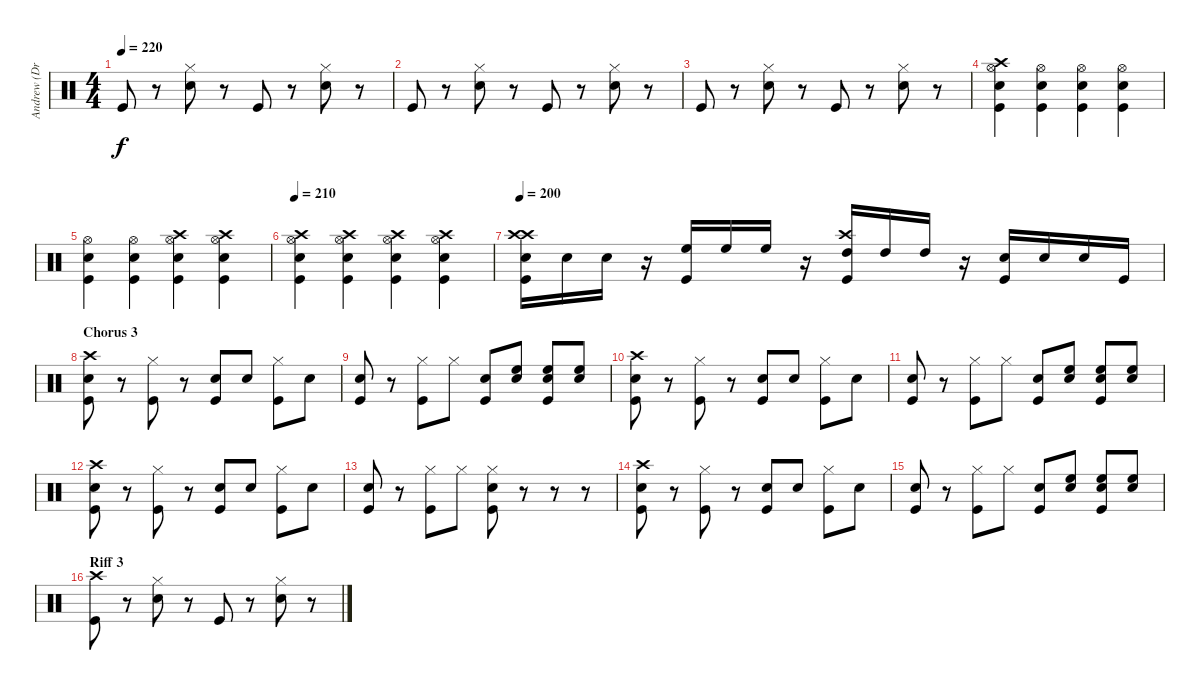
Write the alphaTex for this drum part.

\track ("Andrew (Drums)" "Andrew (Dr") {instrument percussion}
\staff {score}
\articulation defaults
\ts (4 4)
\tempo 220
\clef neutral
\ks c "Kick (hit)".8{dy f}
r.8 ("Snare (hit) 2" "Hi-Hat (closed)").8 r.8 "Kick (hit)".8 r.8 ("Snare (hit) 2" "Hi-Hat (closed)").8 r.8 |
"Kick (hit)".8 r.8 ("Snare (hit) 2" "Hi-Hat (closed)").8 r.8 "Kick (hit)".8 r.8 ("Snare (hit) 2" "Hi-Hat (closed)").8 r.8 |
"Kick (hit)".8 r.8 ("Snare (hit) 2" "Hi-Hat (closed)").8 r.8 "Kick (hit)".8 r.8 ("Snare (hit) 2" "Hi-Hat (closed)").8 r.8 |
("Kick (hit)" "Snare (hit) 2" "Hi-Hat (open)" "Crash high (hit)").4 ("Kick (hit)" "Snare (hit) 2" "Hi-Hat (open)").4 ("Kick (hit)" "Snare (hit) 2" "Hi-Hat (open)").4 ("Kick (hit)" "Snare (hit) 2" "Hi-Hat (open)").4 |
("Kick (hit)" "Snare (hit) 2" "Hi-Hat (open)").4 ("Kick (hit)" "Snare (hit) 2" "Hi-Hat (open)").4 ("Kick (hit)" "Snare (hit) 2" "Hi-Hat (open)" "Crash high (hit)").4 ("Kick (hit)" "Snare (hit) 2" "Hi-Hat (open)" "Crash high (hit)").4 |
\tempo 210
("Kick (hit)" "Snare (hit) 2" "Hi-Hat (open)" "Crash high (hit)").4 ("Kick (hit)" "Snare (hit) 2" "Hi-Hat (open)" "Crash high (hit)").4 ("Kick (hit)" "Snare (hit) 2" "Hi-Hat (open)" "Crash high (hit)").4 ("Kick (hit)" "Snare (hit) 2" "Hi-Hat (open)" "Crash high (hit)").4 |
\tempo 200
("Kick (hit)" "Snare (hit) 2" "Crash high (hit)" "Crash high (hit)").16 "Snare (hit) 2".16 "Snare (hit) 2".16 r.16 ("Kick (hit)" "High Floor Tom (hit)").16 "High Floor Tom (hit)".16 "High Floor Tom (hit)".16 r.16 ("Kick (hit)" "High Tom (hit)" "Crash high (hit)").16 "High Tom (hit)".16 "High Tom (hit)".16 r.16 ("Kick (hit)" "Snare (hit) 2").16 "Snare (hit) 2".16 "Snare (hit) 2".16 "Kick (hit)".16 |
\section ("" "Chorus 3")
("Kick (hit)" "Snare (hit) 2" "Crash high (hit)").8 r.8 ("Kick (hit)" "Hi-Hat (closed)").8 r.8 ("Kick (hit)" "Snare (hit) 2").8 "Snare (hit) 2".8 ("Kick (hit)" "Hi-Hat (closed)").8 "Snare (hit) 2".8 |
("Kick (hit)" "Snare (hit) 2").8 r.8 ("Kick (hit)" "Hi-Hat (closed)").8 "Hi-Hat (closed)".8 ("Kick (hit)" "Snare (hit) 2").8 ("Snare (hit) 2" "High Floor Tom (hit)").8 ("Kick (hit)" "Snare (hit) 2" "High Floor Tom (hit)").8 ("Snare (hit) 2" "High Floor Tom (hit)").8 |
("Kick (hit)" "Snare (hit) 2" "Crash high (hit)").8 r.8 ("Kick (hit)" "Hi-Hat (closed)").8 r.8 ("Kick (hit)" "Snare (hit) 2").8 "Snare (hit) 2".8 ("Kick (hit)" "Hi-Hat (closed)").8 "Snare (hit) 2".8 |
("Kick (hit)" "Snare (hit) 2").8 r.8 ("Kick (hit)" "Hi-Hat (closed)").8 "Hi-Hat (closed)".8 ("Kick (hit)" "Snare (hit) 2").8 ("Snare (hit) 2" "High Floor Tom (hit)").8 ("Kick (hit)" "Snare (hit) 2" "High Floor Tom (hit)").8 ("Snare (hit) 2" "High Floor Tom (hit)").8 |
("Kick (hit)" "Snare (hit) 2" "Crash high (hit)").8 r.8 ("Kick (hit)" "Hi-Hat (closed)").8 r.8 ("Kick (hit)" "Snare (hit) 2").8 "Snare (hit) 2".8 ("Kick (hit)" "Hi-Hat (closed)").8 "Snare (hit) 2".8 |
("Kick (hit)" "Snare (hit) 2").8 r.8 ("Kick (hit)" "Hi-Hat (closed)").8 "Hi-Hat (closed)".8 ("Kick (hit)" "Snare (hit) 2" "Hi-Hat (closed)").8 r.8 r.8 r.8 |
("Kick (hit)" "Snare (hit) 2" "Crash high (hit)").8 r.8 ("Kick (hit)" "Hi-Hat (closed)").8 r.8 ("Kick (hit)" "Snare (hit) 2").8 "Snare (hit) 2".8 ("Kick (hit)" "Hi-Hat (closed)").8 "Snare (hit) 2".8 |
("Kick (hit)" "Snare (hit) 2").8 r.8 ("Kick (hit)" "Hi-Hat (closed)").8 "Hi-Hat (closed)".8 ("Kick (hit)" "Snare (hit) 2").8 ("Snare (hit) 2" "High Floor Tom (hit)").8 ("Kick (hit)" "Snare (hit) 2" "High Floor Tom (hit)").8 ("Snare (hit) 2" "High Floor Tom (hit)").8 |
\section ("" "Riff 3")
("Kick (hit)" "Crash high (hit)").8 r.8 ("Snare (hit) 2" "Hi-Hat (closed)").8 r.8 "Kick (hit)".8 r.8 ("Snare (hit) 2" "Hi-Hat (closed)").8 r.8
